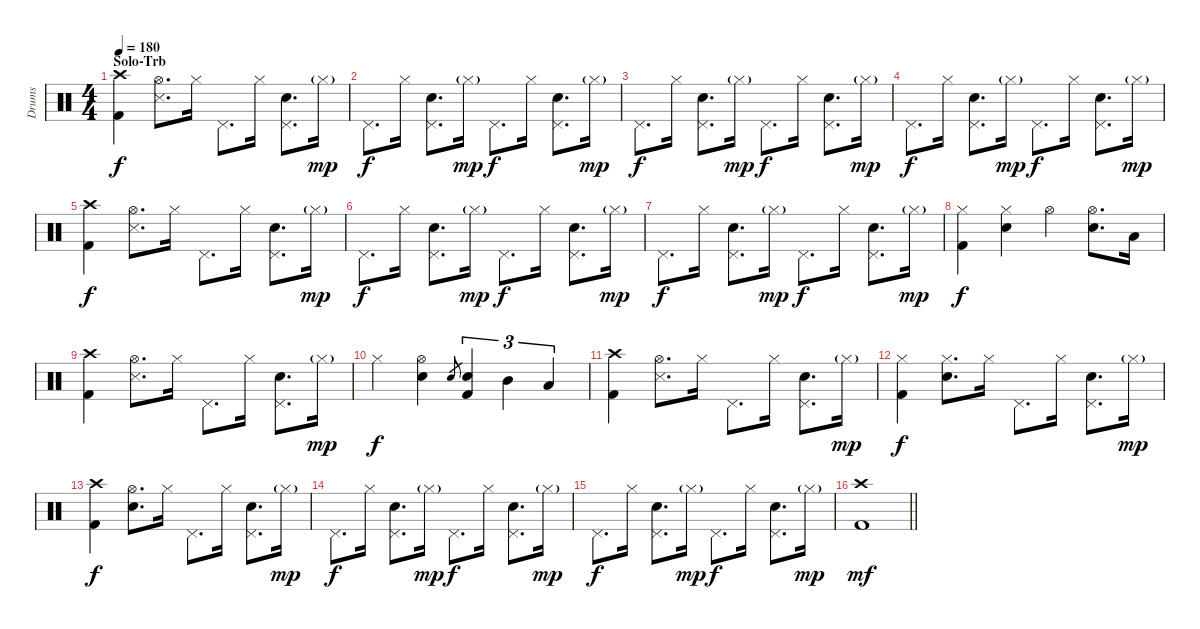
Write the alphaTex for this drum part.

\track ("Drums" "Drums") {instrument percussion}
\staff {score}
\articulation defaults
\ts (4 4)
\section ("" "Solo-Trb")
\tempo 180
\clef neutral
\ks c
("Crash high (hit)" "Kick (hit) 2").4{dy f} ("Hi-Hat (open)" "Snare (side stick) 3").8{d} "Hi-Hat (closed)".16 "Pedal Hi-Hat (hit)".8{d} "Hi-Hat (closed)".16 ("Pedal Hi-Hat (hit)" "Snare (hit) 2").8{d} "Hi-Hat (closed)"{g}.16{dy mp} |
"Pedal Hi-Hat (hit)".8{d dy f} "Hi-Hat (closed)".16 ("Pedal Hi-Hat (hit)" "Snare (hit) 2").8{d} "Hi-Hat (closed)"{g}.16{dy mp} "Pedal Hi-Hat (hit)".8{d dy f} "Hi-Hat (closed)".16 ("Pedal Hi-Hat (hit)" "Snare (hit) 2").8{d} "Hi-Hat (closed)"{g}.16{dy mp} |
"Pedal Hi-Hat (hit)".8{d dy f} "Hi-Hat (closed)".16 ("Pedal Hi-Hat (hit)" "Snare (hit) 2").8{d} "Hi-Hat (closed)"{g}.16{dy mp} "Pedal Hi-Hat (hit)".8{d dy f} "Hi-Hat (closed)".16 ("Pedal Hi-Hat (hit)" "Snare (hit) 2").8{d} "Hi-Hat (closed)"{g}.16{dy mp} |
"Pedal Hi-Hat (hit)".8{d dy f} "Hi-Hat (closed)".16 ("Pedal Hi-Hat (hit)" "Snare (hit) 2").8{d} "Hi-Hat (closed)"{g}.16{dy mp} "Pedal Hi-Hat (hit)".8{d dy f} "Hi-Hat (closed)".16 ("Pedal Hi-Hat (hit)" "Snare (hit) 2").8{d} "Hi-Hat (closed)"{g}.16{dy mp} |
("Crash high (hit)" "Kick (hit) 2").4{dy f} ("Hi-Hat (open)" "Snare (side stick) 3").8{d} "Hi-Hat (closed)".16 "Pedal Hi-Hat (hit)".8{d} "Hi-Hat (closed)".16 ("Pedal Hi-Hat (hit)" "Snare (hit) 2").8{d} "Hi-Hat (closed)"{g}.16{dy mp} |
"Pedal Hi-Hat (hit)".8{d dy f} "Hi-Hat (closed)".16 ("Pedal Hi-Hat (hit)" "Snare (hit) 2").8{d} "Hi-Hat (closed)"{g}.16{dy mp} "Pedal Hi-Hat (hit)".8{d dy f} "Hi-Hat (closed)".16 ("Pedal Hi-Hat (hit)" "Snare (hit) 2").8{d} "Hi-Hat (closed)"{g}.16{dy mp} |
"Pedal Hi-Hat (hit)".8{d dy f} "Hi-Hat (closed)".16 ("Pedal Hi-Hat (hit)" "Snare (hit) 2").8{d} "Hi-Hat (closed)"{g}.16{dy mp} "Pedal Hi-Hat (hit)".8{d dy f} "Hi-Hat (closed)".16 ("Pedal Hi-Hat (hit)" "Snare (hit) 2").8{d} "Hi-Hat (closed)"{g}.16{dy mp} |
("Hi-Hat (closed)" "Kick (hit) 2").4{dy f} ("Hi-Hat (closed)" "Snare (hit) 2").4 "Hi-Hat (open)".4 ("Hi-Hat (open)" "Snare (hit) 2").8{d} "Low Tom (hit)".16 |
("Crash high (hit)" "Kick (hit) 2").4 ("Hi-Hat (open)" "Snare (side stick) 3").8{d} "Hi-Hat (closed)".16 "Pedal Hi-Hat (hit)".8{d} "Hi-Hat (closed)".16 ("Pedal Hi-Hat (hit)" "Snare (hit) 2").8{d} "Hi-Hat (closed)"{g}.16{dy mp} |
"Hi-Hat (closed)".4{dy f} ("Hi-Hat (open)" "Snare (hit) 2").4 "Snare (hit) 2".8{gr} ("Snare (hit) 2" "Kick (hit) 2").4{tu (3 2)} "Mid Tom (hit)".4{tu (3 2)} "Low Tom (hit)".4{tu (3 2)} |
("Crash high (hit)" "Kick (hit) 2").4 ("Hi-Hat (open)" "Snare (side stick) 3").8{d} "Hi-Hat (closed)".16 "Pedal Hi-Hat (hit)".8{d} "Hi-Hat (closed)".16 ("Pedal Hi-Hat (hit)" "Snare (hit) 2").8{d} "Hi-Hat (closed)"{g}.16{dy mp} |
("Hi-Hat (closed)" "Kick (hit) 2").4{dy f} ("Hi-Hat (closed)" "Snare (hit) 2").8{d} "Hi-Hat (closed)".16 "Pedal Hi-Hat (hit)".8{d} "Hi-Hat (closed)".16 ("Pedal Hi-Hat (hit)" "Snare (hit) 2").8{d} "Hi-Hat (closed)"{g}.16{dy mp} |
("Crash high (hit)" "Kick (hit) 2").4{dy f} ("Hi-Hat (open)" "Snare (hit) 2").8{d} "Hi-Hat (closed)".16 "Pedal Hi-Hat (hit)".8{d} "Hi-Hat (closed)".16 ("Pedal Hi-Hat (hit)" "Snare (hit) 2").8{d} "Hi-Hat (closed)"{g}.16{dy mp} |
"Pedal Hi-Hat (hit)".8{d dy f} "Hi-Hat (closed)".16 ("Pedal Hi-Hat (hit)" "Snare (hit) 2").8{d} "Hi-Hat (closed)"{g}.16{dy mp} "Pedal Hi-Hat (hit)".8{d dy f} "Hi-Hat (closed)".16 ("Pedal Hi-Hat (hit)" "Snare (hit) 2").8{d} "Hi-Hat (closed)"{g}.16{dy mp} |
"Pedal Hi-Hat (hit)".8{d dy f} "Hi-Hat (closed)".16 ("Pedal Hi-Hat (hit)" "Snare (hit) 2").8{d} "Hi-Hat (closed)"{g}.16{dy mp} "Pedal Hi-Hat (hit)".8{d dy f} "Hi-Hat (closed)".16 ("Pedal Hi-Hat (hit)" "Snare (hit) 2").8{d} "Hi-Hat (closed)"{g}.16{dy mp} |
\barLineRight lightlight
("Crash high (hit)" "Kick (hit) 2").1{dy mf}
